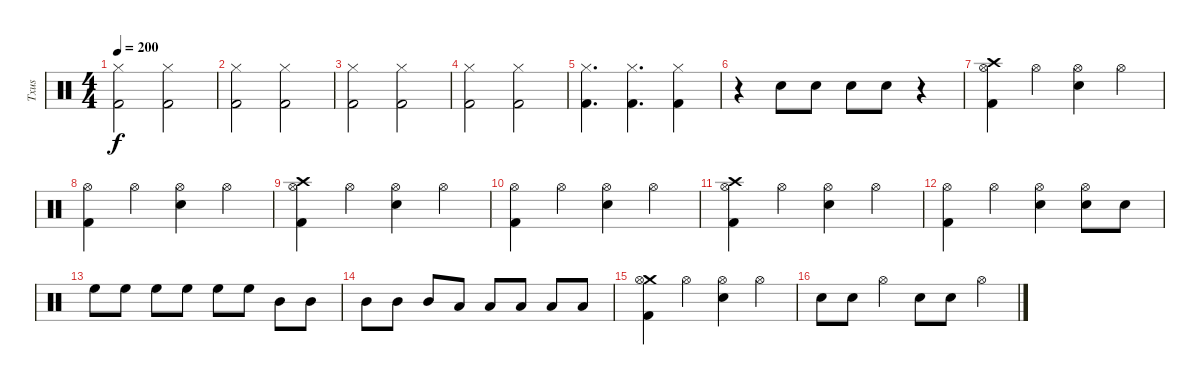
\track ("Txus" "Txus") {instrument percussion}
\staff
\articulation defaults
\ts (4 4)
\tempo 200
\clef neutral
\ks c
("Kick (hit) 2" "Hi-Hat (closed)").2{dy f} ("Kick (hit) 2" "Hi-Hat (closed)").2 |
("Kick (hit) 2" "Hi-Hat (closed)").2 ("Kick (hit) 2" "Hi-Hat (closed)").2 |
("Kick (hit) 2" "Hi-Hat (closed)").2 ("Kick (hit) 2" "Hi-Hat (closed)").2 |
("Kick (hit) 2" "Hi-Hat (closed)").2 ("Kick (hit) 2" "Hi-Hat (closed)").2 |
("Kick (hit) 2" "Hi-Hat (closed)").4{d} ("Kick (hit) 2" "Hi-Hat (closed)").4{d} ("Kick (hit) 2" "Hi-Hat (closed)").4 |
r.4 "Electric Snare (hit)".8 "Electric Snare (hit)".8 "Electric Snare (hit)".8 "Electric Snare (hit)".8 r.4 |
("Kick (hit) 2" "Crash high (hit)" "Hi-Hat (open)").4 "Hi-Hat (open)".4 ("Electric Snare (hit)" "Hi-Hat (open)").4 "Hi-Hat (open)".4 |
("Kick (hit) 2" "Hi-Hat (open)").4 "Hi-Hat (open)".4 ("Electric Snare (hit)" "Hi-Hat (open)").4 "Hi-Hat (open)".4 |
("Kick (hit) 2" "Crash high (hit)" "Hi-Hat (open)").4 "Hi-Hat (open)".4 ("Electric Snare (hit)" "Hi-Hat (open)").4 "Hi-Hat (open)".4 |
("Kick (hit) 2" "Hi-Hat (open)").4 "Hi-Hat (open)".4 ("Electric Snare (hit)" "Hi-Hat (open)").4 "Hi-Hat (open)".4 |
("Kick (hit) 2" "Crash high (hit)" "Hi-Hat (open)").4 "Hi-Hat (open)".4 ("Electric Snare (hit)" "Hi-Hat (open)").4 "Hi-Hat (open)".4 |
("Kick (hit) 2" "Hi-Hat (open)").4 "Hi-Hat (open)".4 ("Electric Snare (hit)" "Hi-Hat (open)").4 ("Electric Snare (hit)" "Hi-Hat (open)").8 "Electric Snare (hit)".8 |
"High Floor Tom (hit)".8 "High Floor Tom (hit)".8 "High Floor Tom (hit)".8 "High Floor Tom (hit)".8 "High Floor Tom (hit)".8 "High Floor Tom (hit)".8 "Mid Tom (hit)".8 "Mid Tom (hit)".8 |
"Mid Tom (hit)".8 "Mid Tom (hit)".8 "Mid Tom (hit)".8 "Low Tom (hit)".8 "Low Tom (hit)".8 "Low Tom (hit)".8 "Low Tom (hit)".8 "Low Tom (hit)".8 |
("Kick (hit) 2" "Crash medium (hit)" "Hi-Hat (open)").4 "Hi-Hat (open)".4 ("Electric Snare (hit)" "Hi-Hat (open)").4 "Hi-Hat (open)".4 |
"Electric Snare (hit)".8 "Electric Snare (hit)".8 "Hi-Hat (open)".4 "Electric Snare (hit)".8 "Electric Snare (hit)".8 "Hi-Hat (open)".4
